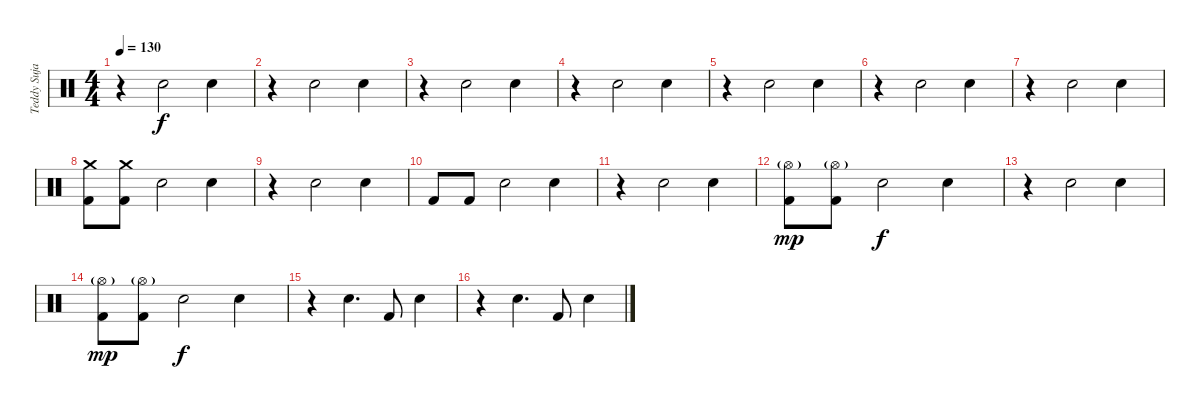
\track ("Teddy Sujaya" "Teddy Suja") {instrument percussion}
\staff {score}
\articulation defaults
\ts (4 4)
\tempo 130
\clef neutral
\ks c
r.4{dy f} "Electric Snare (hit)".2 "Electric Snare (hit)".4 |
r.4 "Electric Snare (hit)".2 "Electric Snare (hit)".4 |
r.4 "Electric Snare (hit)".2 "Electric Snare (hit)".4 |
r.4 "Electric Snare (hit)".2 "Electric Snare (hit)".4 |
r.4 "Electric Snare (hit)".2 "Electric Snare (hit)".4 |
r.4 "Electric Snare (hit)".2 "Electric Snare (hit)".4 |
r.4 "Electric Snare (hit)".2 "Electric Snare (hit)".4 |
("Crash medium (hit)" "Kick (hit) 2").8 ("Crash medium (hit)" "Kick (hit) 2").8 "Electric Snare (hit)".2 "Electric Snare (hit)".4 |
r.4 "Electric Snare (hit)".2 "Electric Snare (hit)".4 |
"Kick (hit) 2".8 "Kick (hit) 2".8 "Electric Snare (hit)".2 "Electric Snare (hit)".4 |
r.4 "Electric Snare (hit)".2 "Electric Snare (hit)".4 |
("Hi-Hat (open)"{g} "Kick (hit) 2").8{dy mp} ("Hi-Hat (open)"{g} "Kick (hit) 2").8 "Electric Snare (hit)".2{dy f} "Electric Snare (hit)".4 |
r.4 "Electric Snare (hit)".2 "Electric Snare (hit)".4 |
("Hi-Hat (open)"{g} "Kick (hit) 2").8{dy mp} ("Hi-Hat (open)"{g} "Kick (hit) 2").8 "Electric Snare (hit)".2{dy f} "Electric Snare (hit)".4 |
r.4 "Electric Snare (hit)".4{d} "Kick (hit) 2".8 "Electric Snare (hit)".4 |
r.4 "Electric Snare (hit)".4{d} "Kick (hit) 2".8 "Electric Snare (hit)".4
